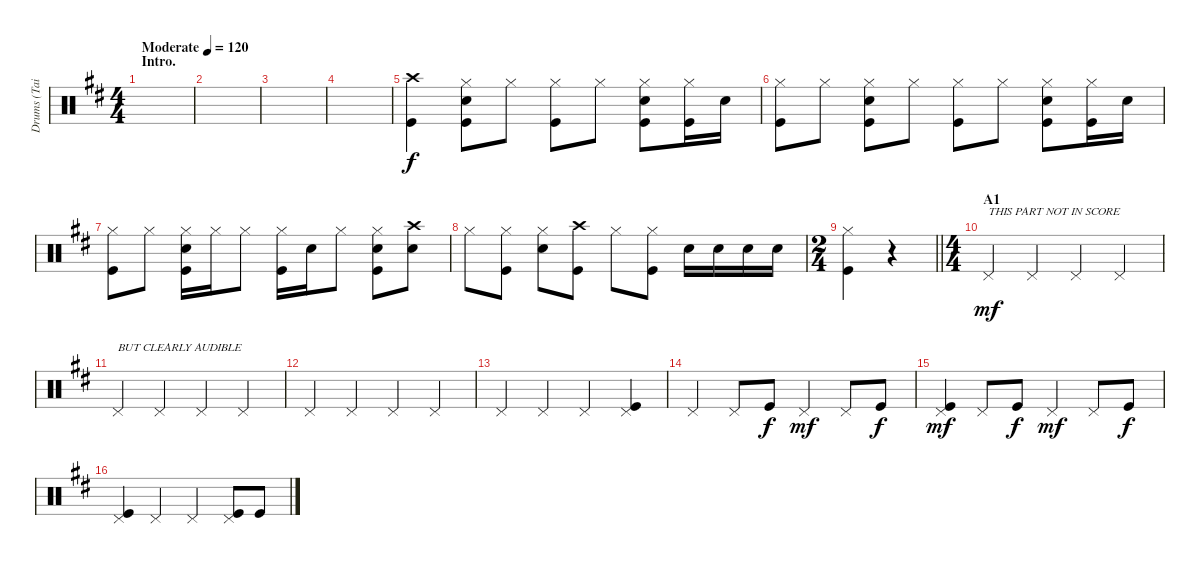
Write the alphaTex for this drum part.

\track ("Drums (Tainaka Ritsu)" "Drums (Tai") {instrument percussion}
\staff {score}
\articulation defaults
\ts (4 4)
\section ("" "Intro.")
\tempo (120 "Moderate")
\clef neutral
\ks d
|
|
|
|
("Crash high (hit)" "Kick (hit)").4 ("Hi-Hat (closed)" "Snare (hit) 2" "Kick (hit)").8 "Hi-Hat (closed)".8 ("Hi-Hat (closed)" "Kick (hit)").8 "Hi-Hat (closed)".8 ("Hi-Hat (closed)" "Snare (hit) 2" "Kick (hit)").8 ("Hi-Hat (closed)" "Kick (hit)").16 "Snare (hit) 2".16 |
("Hi-Hat (closed)" "Kick (hit)").8 "Hi-Hat (closed)".8 ("Hi-Hat (closed)" "Snare (hit) 2" "Kick (hit)").8 "Hi-Hat (closed)".8 ("Hi-Hat (closed)" "Kick (hit)").8 "Hi-Hat (closed)".8 ("Hi-Hat (closed)" "Snare (hit) 2" "Kick (hit)").8 ("Hi-Hat (closed)" "Kick (hit)").16 "Snare (hit) 2".16 |
("Hi-Hat (closed)" "Kick (hit)").8 "Hi-Hat (closed)".8 ("Hi-Hat (closed)" "Snare (hit) 2" "Kick (hit)").16 "Hi-Hat (closed)".16 "Hi-Hat (closed)".8 ("Hi-Hat (closed)" "Kick (hit)").16 "Snare (hit) 2".16 "Hi-Hat (closed)".8 ("Hi-Hat (closed)" "Snare (hit) 2" "Kick (hit)").8 ("Crash high (hit)" "Snare (hit) 2").8 |
"Hi-Hat (closed)".8 ("Hi-Hat (closed)" "Kick (hit)").8 ("Hi-Hat (closed)" "Snare (hit) 2").8 ("Crash high (hit)" "Kick (hit)").8 "Hi-Hat (closed)".8 ("Hi-Hat (closed)" "Kick (hit)").8 "Snare (hit) 2".16 "Snare (hit) 2".16 "Snare (hit) 2".16 "Snare (hit) 2".16 |
\ts (2 4)
\barLineRight lightlight
("Hi-Hat (closed)" "Kick (hit)").4 r.4 |
\ts (4 4)
\section ("" "A1")
"Pedal Hi-Hat (hit)".4{txt "THIS PART NOT IN SCORE" dy mf} "Pedal Hi-Hat (hit)".4 "Pedal Hi-Hat (hit)".4 "Pedal Hi-Hat (hit)".4 |
"Pedal Hi-Hat (hit)".4{txt "BUT CLEARLY AUDIBLE"} "Pedal Hi-Hat (hit)".4 "Pedal Hi-Hat (hit)".4 "Pedal Hi-Hat (hit)".4 |
"Pedal Hi-Hat (hit)".4 "Pedal Hi-Hat (hit)".4 "Pedal Hi-Hat (hit)".4 "Pedal Hi-Hat (hit)".4 |
"Pedal Hi-Hat (hit)".4 "Pedal Hi-Hat (hit)".4 "Pedal Hi-Hat (hit)".4 ("Pedal Hi-Hat (hit)" "Kick (hit)").4 |
"Pedal Hi-Hat (hit)".4 "Pedal Hi-Hat (hit)".8 "Kick (hit)".8{dy f} "Pedal Hi-Hat (hit)".4{dy mf} "Pedal Hi-Hat (hit)".8 "Kick (hit)".8{dy f} |
("Pedal Hi-Hat (hit)" "Kick (hit)").4{dy mf} "Pedal Hi-Hat (hit)".8 "Kick (hit)".8{dy f} "Pedal Hi-Hat (hit)".4{dy mf} "Pedal Hi-Hat (hit)".8 "Kick (hit)".8{dy f} |
("Pedal Hi-Hat (hit)" "Kick (hit)").4 "Pedal Hi-Hat (hit)".4 "Pedal Hi-Hat (hit)".4 ("Pedal Hi-Hat (hit)" "Kick (hit)").8 "Kick (hit)".8
